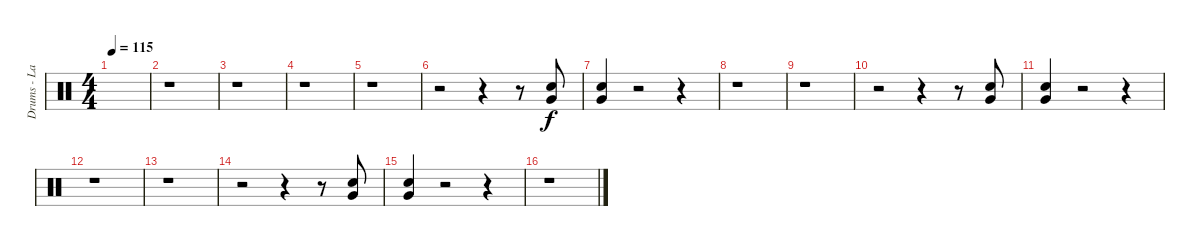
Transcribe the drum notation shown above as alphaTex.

\track ("Drums - Lars" "Drums - La") {instrument percussion}
\staff {score}
\articulation defaults
\ts (4 4)
\tempo 115
\clef neutral
\ks c
|
r.1 |
r.1 |
r.1 |
r.1 |
r.2 r.4 r.8 ("Snare (hit) 2" "Very Low Tom (hit)").8 |
("Snare (hit) 2" "Very Low Tom (hit)").4 r.2 r.4 |
r.1 |
r.1 |
r.2 r.4 r.8 ("Snare (hit) 2" "Very Low Tom (hit)").8 |
("Snare (hit) 2" "Very Low Tom (hit)").4 r.2 r.4 |
r.1 |
r.1 |
r.2 r.4 r.8 ("Snare (hit) 2" "Very Low Tom (hit)").8 |
("Snare (hit) 2" "Very Low Tom (hit)").4 r.2 r.4 |
r.1
